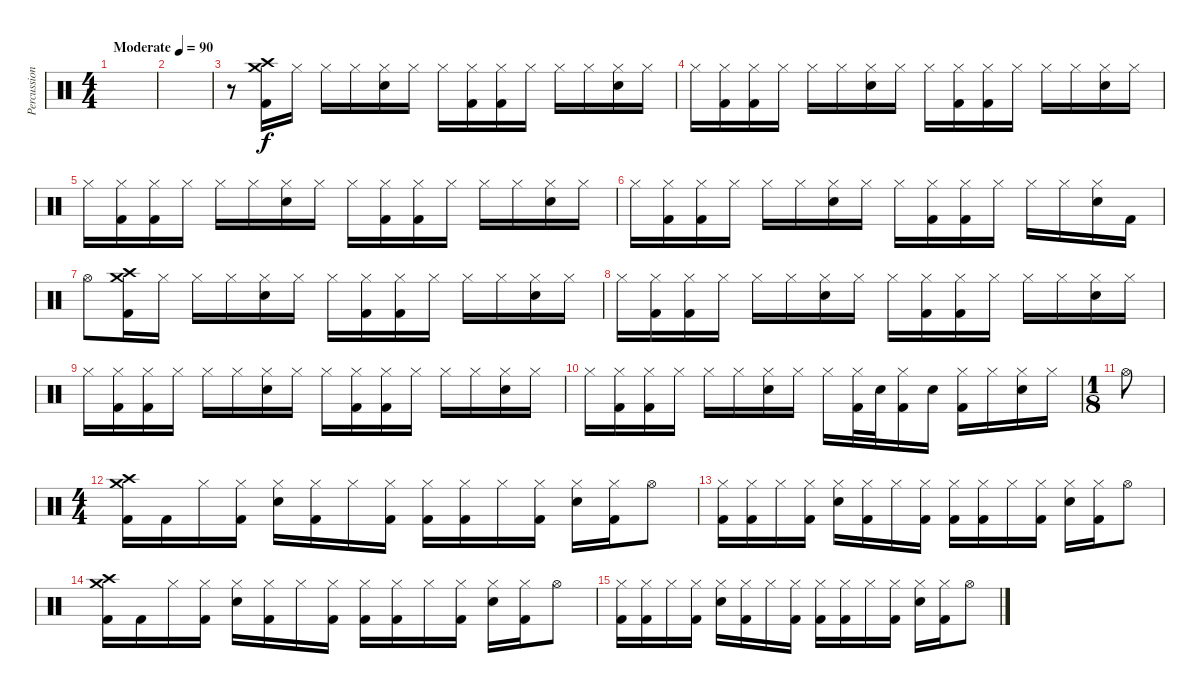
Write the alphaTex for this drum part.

\track ("Percussion" "Percussion") {instrument percussion}
\staff {score}
\articulation defaults
\ts (4 4)
\tempo (90 "Moderate")
\clef neutral
\ks c
|
|
r.8 ("Crash medium (hit)" "Crash high (hit)" "Kick (hit) 2").16 "Hi-Hat (closed)".16 "Hi-Hat (closed)".16 "Hi-Hat (closed)".16 ("Hi-Hat (closed)" "Snare (hit) 2").16 "Hi-Hat (closed)".16 "Hi-Hat (closed)".16 ("Hi-Hat (closed)" "Kick (hit) 2").16 ("Hi-Hat (closed)" "Kick (hit) 2").16 "Hi-Hat (closed)".16 "Hi-Hat (closed)".16 "Hi-Hat (closed)".16 ("Hi-Hat (closed)" "Snare (hit) 2").16 "Hi-Hat (closed)".16 |
"Hi-Hat (closed)".16 ("Hi-Hat (closed)" "Kick (hit) 2").16 ("Hi-Hat (closed)" "Kick (hit) 2").16 "Hi-Hat (closed)".16 "Hi-Hat (closed)".16 "Hi-Hat (closed)".16 ("Hi-Hat (closed)" "Snare (hit) 2").16 "Hi-Hat (closed)".16 "Hi-Hat (closed)".16 ("Hi-Hat (closed)" "Kick (hit) 2").16 ("Hi-Hat (closed)" "Kick (hit) 2").16 "Hi-Hat (closed)".16 "Hi-Hat (closed)".16 "Hi-Hat (closed)".16 ("Hi-Hat (closed)" "Snare (hit) 2").16 "Hi-Hat (closed)".16 |
"Hi-Hat (closed)".16 ("Hi-Hat (closed)" "Kick (hit) 2").16 ("Hi-Hat (closed)" "Kick (hit) 2").16 "Hi-Hat (closed)".16 "Hi-Hat (closed)".16 "Hi-Hat (closed)".16 ("Hi-Hat (closed)" "Snare (hit) 2").16 "Hi-Hat (closed)".16 "Hi-Hat (closed)".16 ("Hi-Hat (closed)" "Kick (hit) 2").16 ("Hi-Hat (closed)" "Kick (hit) 2").16 "Hi-Hat (closed)".16 "Hi-Hat (closed)".16 "Hi-Hat (closed)".16 ("Hi-Hat (closed)" "Snare (hit) 2").16 "Hi-Hat (closed)".16 |
"Hi-Hat (closed)".16 ("Hi-Hat (closed)" "Kick (hit) 2").16 ("Hi-Hat (closed)" "Kick (hit) 2").16 "Hi-Hat (closed)".16 "Hi-Hat (closed)".16 "Hi-Hat (closed)".16 ("Hi-Hat (closed)" "Snare (hit) 2").16 "Hi-Hat (closed)".16 "Hi-Hat (closed)".16 ("Hi-Hat (closed)" "Kick (hit) 2").16 ("Hi-Hat (closed)" "Kick (hit) 2").16 "Hi-Hat (closed)".16 "Hi-Hat (closed)".16 "Hi-Hat (closed)".16 ("Hi-Hat (closed)" "Snare (hit) 2").16 "Kick (hit) 2".16 |
"Hi-Hat (open)".8 ("Crash medium (hit)" "Crash high (hit)" "Kick (hit) 2").16 "Hi-Hat (closed)".16 "Hi-Hat (closed)".16 "Hi-Hat (closed)".16 ("Hi-Hat (closed)" "Snare (hit) 2").16 "Hi-Hat (closed)".16 "Hi-Hat (closed)".16 ("Hi-Hat (closed)" "Kick (hit) 2").16 ("Hi-Hat (closed)" "Kick (hit) 2").16 "Hi-Hat (closed)".16 "Hi-Hat (closed)".16 "Hi-Hat (closed)".16 ("Hi-Hat (closed)" "Snare (hit) 2").16 "Hi-Hat (closed)".16 |
"Hi-Hat (closed)".16 ("Hi-Hat (closed)" "Kick (hit) 2").16 ("Hi-Hat (closed)" "Kick (hit) 2").16 "Hi-Hat (closed)".16 "Hi-Hat (closed)".16 "Hi-Hat (closed)".16 ("Hi-Hat (closed)" "Snare (hit) 2").16 "Hi-Hat (closed)".16 "Hi-Hat (closed)".16 ("Hi-Hat (closed)" "Kick (hit) 2").16 ("Hi-Hat (closed)" "Kick (hit) 2").16 "Hi-Hat (closed)".16 "Hi-Hat (closed)".16 "Hi-Hat (closed)".16 ("Hi-Hat (closed)" "Snare (hit) 2").16 "Hi-Hat (closed)".16 |
"Hi-Hat (closed)".16 ("Hi-Hat (closed)" "Kick (hit) 2").16 ("Hi-Hat (closed)" "Kick (hit) 2").16 "Hi-Hat (closed)".16 "Hi-Hat (closed)".16 "Hi-Hat (closed)".16 ("Hi-Hat (closed)" "Snare (hit) 2").16 "Hi-Hat (closed)".16 "Hi-Hat (closed)".16 ("Hi-Hat (closed)" "Kick (hit) 2").16 ("Hi-Hat (closed)" "Kick (hit) 2").16 "Hi-Hat (closed)".16 "Hi-Hat (closed)".16 "Hi-Hat (closed)".16 ("Hi-Hat (closed)" "Snare (hit) 2").16 "Hi-Hat (closed)".16 |
"Hi-Hat (closed)".16 ("Hi-Hat (closed)" "Kick (hit) 2").16 ("Hi-Hat (closed)" "Kick (hit) 2").16 "Hi-Hat (closed)".16 "Hi-Hat (closed)".16 "Hi-Hat (closed)".16 ("Hi-Hat (closed)" "Snare (hit) 2").16 "Hi-Hat (closed)".16 "Hi-Hat (closed)".16 ("Hi-Hat (closed)" "Kick (hit) 2").32 "Snare (hit) 2".32 ("Hi-Hat (closed)" "Kick (hit) 2").16 "Snare (hit) 2".16 ("Hi-Hat (closed)" "Kick (hit) 2").16 "Hi-Hat (closed)".16 ("Hi-Hat (closed)" "Snare (hit) 2").16 "Hi-Hat (closed)".16 |
\ts (1 8)
"Hi-Hat (open)".8 |
\ts (4 4)
("Crash high (hit)" "Crash medium (hit)" "Kick (hit) 2").16 "Kick (hit) 2".16 "Hi-Hat (closed)".16 ("Hi-Hat (closed)" "Kick (hit) 2").16 ("Hi-Hat (closed)" "Snare (hit) 2").16 ("Hi-Hat (closed)" "Kick (hit) 2").16 "Hi-Hat (closed)".16 ("Hi-Hat (closed)" "Kick (hit) 2").16 ("Hi-Hat (closed)" "Kick (hit) 2").16 ("Hi-Hat (closed)" "Kick (hit) 2").16 "Hi-Hat (closed)".16 ("Hi-Hat (closed)" "Kick (hit) 2").16 ("Hi-Hat (closed)" "Snare (hit) 2").16 ("Hi-Hat (closed)" "Kick (hit) 2").16 "Hi-Hat (open)".8 |
("Hi-Hat (closed)" "Kick (hit) 2").16 ("Hi-Hat (closed)" "Kick (hit) 2").16 "Hi-Hat (closed)".16 ("Hi-Hat (closed)" "Kick (hit) 2").16 ("Hi-Hat (closed)" "Snare (hit) 2").16 ("Hi-Hat (closed)" "Kick (hit) 2").16 "Hi-Hat (closed)".16 ("Hi-Hat (closed)" "Kick (hit) 2").16 ("Hi-Hat (closed)" "Kick (hit) 2").16 ("Hi-Hat (closed)" "Kick (hit) 2").16 "Hi-Hat (closed)".16 ("Hi-Hat (closed)" "Kick (hit) 2").16 ("Hi-Hat (closed)" "Snare (hit) 2").16 ("Hi-Hat (closed)" "Kick (hit) 2").16 "Hi-Hat (open)".8 |
("Crash high (hit)" "Crash medium (hit)" "Kick (hit) 2").16 "Kick (hit) 2".16 "Hi-Hat (closed)".16 ("Hi-Hat (closed)" "Kick (hit) 2").16 ("Hi-Hat (closed)" "Snare (hit) 2").16 ("Hi-Hat (closed)" "Kick (hit) 2").16 "Hi-Hat (closed)".16 ("Hi-Hat (closed)" "Kick (hit) 2").16 ("Hi-Hat (closed)" "Kick (hit) 2").16 ("Hi-Hat (closed)" "Kick (hit) 2").16 "Hi-Hat (closed)".16 ("Hi-Hat (closed)" "Kick (hit) 2").16 ("Hi-Hat (closed)" "Snare (hit) 2").16 ("Hi-Hat (closed)" "Kick (hit) 2").16 "Hi-Hat (open)".8 |
("Hi-Hat (closed)" "Kick (hit) 2").16 ("Hi-Hat (closed)" "Kick (hit) 2").16 "Hi-Hat (closed)".16 ("Hi-Hat (closed)" "Kick (hit) 2").16 ("Hi-Hat (closed)" "Snare (hit) 2").16 ("Hi-Hat (closed)" "Kick (hit) 2").16 "Hi-Hat (closed)".16 ("Hi-Hat (closed)" "Kick (hit) 2").16 ("Hi-Hat (closed)" "Kick (hit) 2").16 ("Hi-Hat (closed)" "Kick (hit) 2").16 "Hi-Hat (closed)".16 ("Hi-Hat (closed)" "Kick (hit) 2").16 ("Hi-Hat (closed)" "Snare (hit) 2").16 ("Hi-Hat (closed)" "Kick (hit) 2").16 "Hi-Hat (open)".8
